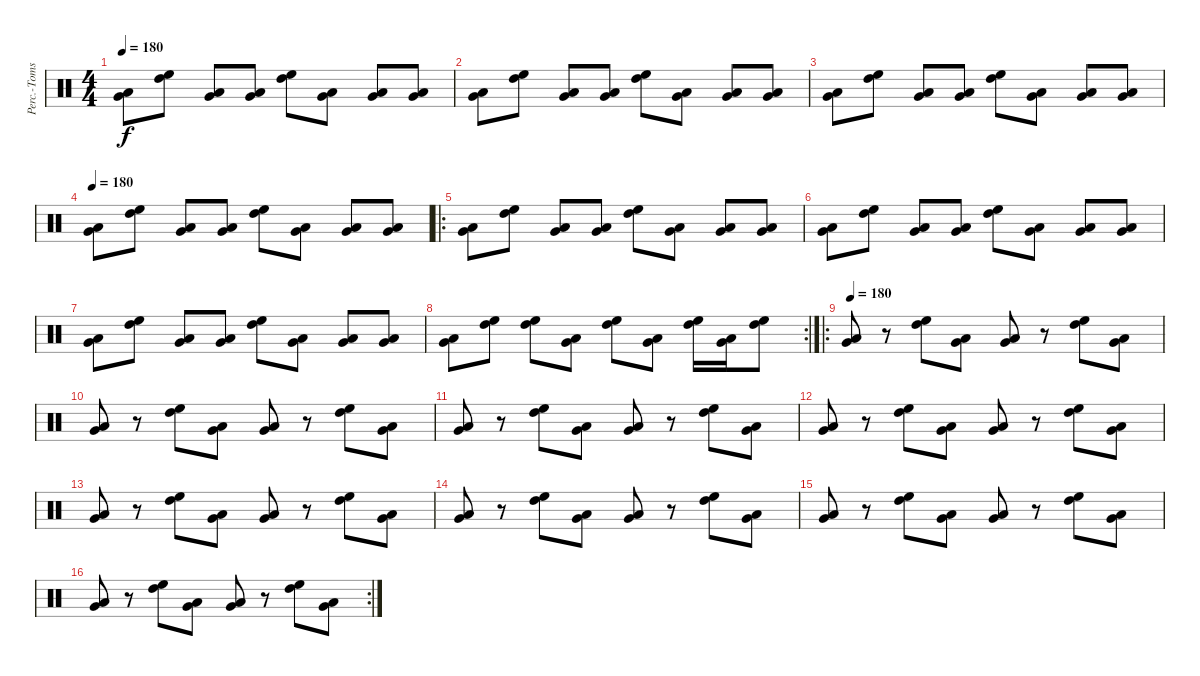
\track ("Perc.-Toms " "Perc.-Toms") {instrument percussion}
\staff {score}
\articulation defaults
\ts (4 4)
\tempo 180
\clef neutral
\ks c
("Very Low Tom (hit)" "Low Floor Tom (hit)").8{dy f} ("High Floor Tom (hit)" "High Tom (hit)").8 ("Very Low Tom (hit)" "Low Floor Tom (hit)").8 ("Very Low Tom (hit)" "Low Floor Tom (hit)").8 ("High Floor Tom (hit)" "High Tom (hit)").8 ("Very Low Tom (hit)" "Low Floor Tom (hit)").8 ("Very Low Tom (hit)" "Low Floor Tom (hit)").8 ("Very Low Tom (hit)" "Low Floor Tom (hit)").8 |
("Very Low Tom (hit)" "Low Floor Tom (hit)").8 ("High Floor Tom (hit)" "High Tom (hit)").8 ("Very Low Tom (hit)" "Low Floor Tom (hit)").8 ("Very Low Tom (hit)" "Low Floor Tom (hit)").8 ("High Floor Tom (hit)" "High Tom (hit)").8 ("Very Low Tom (hit)" "Low Floor Tom (hit)").8 ("Very Low Tom (hit)" "Low Floor Tom (hit)").8 ("Very Low Tom (hit)" "Low Floor Tom (hit)").8 |
("Very Low Tom (hit)" "Low Floor Tom (hit)").8 ("High Floor Tom (hit)" "High Tom (hit)").8 ("Very Low Tom (hit)" "Low Floor Tom (hit)").8 ("Very Low Tom (hit)" "Low Floor Tom (hit)").8 ("High Floor Tom (hit)" "High Tom (hit)").8 ("Very Low Tom (hit)" "Low Floor Tom (hit)").8 ("Very Low Tom (hit)" "Low Floor Tom (hit)").8 ("Very Low Tom (hit)" "Low Floor Tom (hit)").8 |
\tempo 180
("Very Low Tom (hit)" "Low Floor Tom (hit)").8 ("High Floor Tom (hit)" "High Tom (hit)").8 ("Very Low Tom (hit)" "Low Floor Tom (hit)").8 ("Very Low Tom (hit)" "Low Floor Tom (hit)").8 ("High Floor Tom (hit)" "High Tom (hit)").8 ("Very Low Tom (hit)" "Low Floor Tom (hit)").8 ("Very Low Tom (hit)" "Low Floor Tom (hit)").8 ("Very Low Tom (hit)" "Low Floor Tom (hit)").8 |
\ro
("Very Low Tom (hit)" "Low Floor Tom (hit)").8 ("High Floor Tom (hit)" "High Tom (hit)").8 ("Very Low Tom (hit)" "Low Floor Tom (hit)").8 ("Very Low Tom (hit)" "Low Floor Tom (hit)").8 ("High Floor Tom (hit)" "High Tom (hit)").8 ("Very Low Tom (hit)" "Low Floor Tom (hit)").8 ("Very Low Tom (hit)" "Low Floor Tom (hit)").8 ("Very Low Tom (hit)" "Low Floor Tom (hit)").8 |
("Very Low Tom (hit)" "Low Floor Tom (hit)").8 ("High Floor Tom (hit)" "High Tom (hit)").8 ("Very Low Tom (hit)" "Low Floor Tom (hit)").8 ("Very Low Tom (hit)" "Low Floor Tom (hit)").8 ("High Floor Tom (hit)" "High Tom (hit)").8 ("Very Low Tom (hit)" "Low Floor Tom (hit)").8 ("Very Low Tom (hit)" "Low Floor Tom (hit)").8 ("Very Low Tom (hit)" "Low Floor Tom (hit)").8 |
("Very Low Tom (hit)" "Low Floor Tom (hit)").8 ("High Floor Tom (hit)" "High Tom (hit)").8 ("Very Low Tom (hit)" "Low Floor Tom (hit)").8 ("Very Low Tom (hit)" "Low Floor Tom (hit)").8 ("High Floor Tom (hit)" "High Tom (hit)").8 ("Very Low Tom (hit)" "Low Floor Tom (hit)").8 ("Very Low Tom (hit)" "Low Floor Tom (hit)").8 ("Very Low Tom (hit)" "Low Floor Tom (hit)").8 |
\rc 2
("Very Low Tom (hit)" "Low Floor Tom (hit)").8 ("High Floor Tom (hit)" "High Tom (hit)").8 ("High Floor Tom (hit)" "High Tom (hit)").8 ("Very Low Tom (hit)" "Low Floor Tom (hit)").8 ("High Floor Tom (hit)" "High Tom (hit)").8 ("Very Low Tom (hit)" "Low Floor Tom (hit)").8 ("High Floor Tom (hit)" "High Tom (hit)").16 ("Very Low Tom (hit)" "Low Floor Tom (hit)").16 ("High Floor Tom (hit)" "High Tom (hit)").8 |
\ro
\tempo 180
("Very Low Tom (hit)" "Low Floor Tom (hit)").8 r.8 ("High Floor Tom (hit)" "High Tom (hit)").8 ("Very Low Tom (hit)" "Low Floor Tom (hit)").8 ("Very Low Tom (hit)" "Low Floor Tom (hit)").8 r.8 ("High Floor Tom (hit)" "High Tom (hit)").8 ("Very Low Tom (hit)" "Low Floor Tom (hit)").8 |
("Very Low Tom (hit)" "Low Floor Tom (hit)").8 r.8 ("High Floor Tom (hit)" "High Tom (hit)").8 ("Very Low Tom (hit)" "Low Floor Tom (hit)").8 ("Very Low Tom (hit)" "Low Floor Tom (hit)").8 r.8 ("High Floor Tom (hit)" "High Tom (hit)").8 ("Very Low Tom (hit)" "Low Floor Tom (hit)").8 |
("Very Low Tom (hit)" "Low Floor Tom (hit)").8 r.8 ("High Floor Tom (hit)" "High Tom (hit)").8 ("Very Low Tom (hit)" "Low Floor Tom (hit)").8 ("Very Low Tom (hit)" "Low Floor Tom (hit)").8 r.8 ("High Floor Tom (hit)" "High Tom (hit)").8 ("Very Low Tom (hit)" "Low Floor Tom (hit)").8 |
("Very Low Tom (hit)" "Low Floor Tom (hit)").8 r.8 ("High Floor Tom (hit)" "High Tom (hit)").8 ("Very Low Tom (hit)" "Low Floor Tom (hit)").8 ("Very Low Tom (hit)" "Low Floor Tom (hit)").8 r.8 ("High Floor Tom (hit)" "High Tom (hit)").8 ("Very Low Tom (hit)" "Low Floor Tom (hit)").8 |
("Very Low Tom (hit)" "Low Floor Tom (hit)").8 r.8 ("High Floor Tom (hit)" "High Tom (hit)").8 ("Very Low Tom (hit)" "Low Floor Tom (hit)").8 ("Very Low Tom (hit)" "Low Floor Tom (hit)").8 r.8 ("High Floor Tom (hit)" "High Tom (hit)").8 ("Very Low Tom (hit)" "Low Floor Tom (hit)").8 |
("Very Low Tom (hit)" "Low Floor Tom (hit)").8 r.8 ("High Floor Tom (hit)" "High Tom (hit)").8 ("Very Low Tom (hit)" "Low Floor Tom (hit)").8 ("Very Low Tom (hit)" "Low Floor Tom (hit)").8 r.8 ("High Floor Tom (hit)" "High Tom (hit)").8 ("Very Low Tom (hit)" "Low Floor Tom (hit)").8 |
("Very Low Tom (hit)" "Low Floor Tom (hit)").8 r.8 ("High Floor Tom (hit)" "High Tom (hit)").8 ("Very Low Tom (hit)" "Low Floor Tom (hit)").8 ("Very Low Tom (hit)" "Low Floor Tom (hit)").8 r.8 ("High Floor Tom (hit)" "High Tom (hit)").8 ("Very Low Tom (hit)" "Low Floor Tom (hit)").8 |
\rc 2
("Very Low Tom (hit)" "Low Floor Tom (hit)").8 r.8 ("High Floor Tom (hit)" "High Tom (hit)").8 ("Very Low Tom (hit)" "Low Floor Tom (hit)").8 ("Very Low Tom (hit)" "Low Floor Tom (hit)").8 r.8 ("High Floor Tom (hit)" "High Tom (hit)").8 ("Very Low Tom (hit)" "Low Floor Tom (hit)").8
